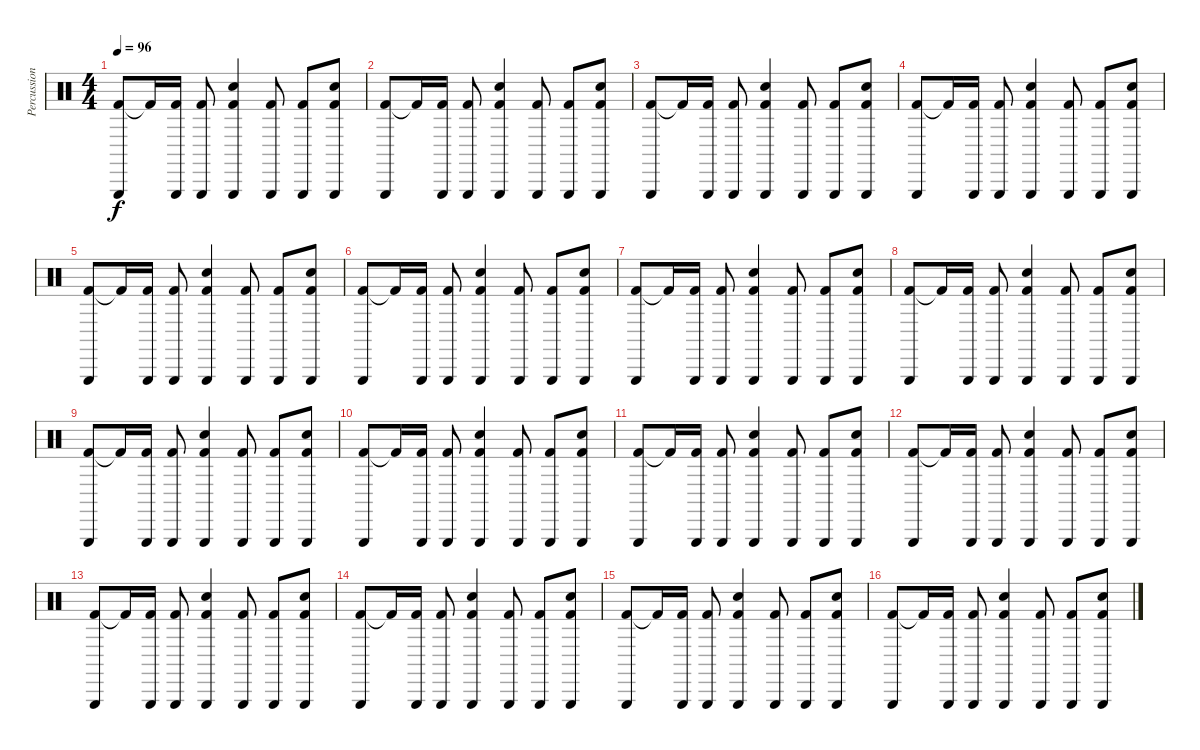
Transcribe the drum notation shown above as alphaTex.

\track ("Percussion 2" "Percussion") {instrument percussion}
\staff {score}
\articulation defaults
\ts (4 4)
\tempo 96
\clef neutral
\ks c
("Kick (hit) 2" "Triangle (hit)").8{dy f} "Kick (hit) 2"{t}.16 ("Kick (hit) 2" "Triangle (hit)").16 ("Kick (hit) 2" "Triangle (hit)").8 ("Kick (hit) 2" "Snare (hit) 2" "Triangle (hit)").4 ("Kick (hit) 2" "Triangle (hit)").8 ("Kick (hit) 2" "Triangle (hit)").8 ("Kick (hit) 2" "Snare (hit) 2" "Triangle (hit)").8 |
("Kick (hit) 2" "Triangle (hit)").8 "Kick (hit) 2"{t}.16 ("Kick (hit) 2" "Triangle (hit)").16 ("Kick (hit) 2" "Triangle (hit)").8 ("Kick (hit) 2" "Snare (hit) 2" "Triangle (hit)").4 ("Kick (hit) 2" "Triangle (hit)").8 ("Kick (hit) 2" "Triangle (hit)").8 ("Kick (hit) 2" "Snare (hit) 2" "Triangle (hit)").8 |
("Kick (hit) 2" "Triangle (hit)").8 "Kick (hit) 2"{t}.16 ("Kick (hit) 2" "Triangle (hit)").16 ("Kick (hit) 2" "Triangle (hit)").8 ("Kick (hit) 2" "Snare (hit) 2" "Triangle (hit)").4 ("Kick (hit) 2" "Triangle (hit)").8 ("Kick (hit) 2" "Triangle (hit)").8 ("Kick (hit) 2" "Snare (hit) 2" "Triangle (hit)").8 |
("Kick (hit) 2" "Triangle (hit)").8 "Kick (hit) 2"{t}.16 ("Kick (hit) 2" "Triangle (hit)").16 ("Kick (hit) 2" "Triangle (hit)").8 ("Kick (hit) 2" "Snare (hit) 2" "Triangle (hit)").4 ("Kick (hit) 2" "Triangle (hit)").8 ("Kick (hit) 2" "Triangle (hit)").8 ("Kick (hit) 2" "Snare (hit) 2" "Triangle (hit)").8 |
("Kick (hit) 2" "Triangle (hit)").8 "Kick (hit) 2"{t}.16 ("Kick (hit) 2" "Triangle (hit)").16 ("Kick (hit) 2" "Triangle (hit)").8 ("Kick (hit) 2" "Snare (hit) 2" "Triangle (hit)").4 ("Kick (hit) 2" "Triangle (hit)").8 ("Kick (hit) 2" "Triangle (hit)").8 ("Kick (hit) 2" "Snare (hit) 2" "Triangle (hit)").8 |
("Kick (hit) 2" "Triangle (hit)").8 "Kick (hit) 2"{t}.16 ("Kick (hit) 2" "Triangle (hit)").16 ("Kick (hit) 2" "Triangle (hit)").8 ("Kick (hit) 2" "Snare (hit) 2" "Triangle (hit)").4 ("Kick (hit) 2" "Triangle (hit)").8 ("Kick (hit) 2" "Triangle (hit)").8 ("Kick (hit) 2" "Snare (hit) 2" "Triangle (hit)").8 |
("Kick (hit) 2" "Triangle (hit)").8 "Kick (hit) 2"{t}.16 ("Kick (hit) 2" "Triangle (hit)").16 ("Kick (hit) 2" "Triangle (hit)").8 ("Kick (hit) 2" "Snare (hit) 2" "Triangle (hit)").4 ("Kick (hit) 2" "Triangle (hit)").8 ("Kick (hit) 2" "Triangle (hit)").8 ("Kick (hit) 2" "Snare (hit) 2" "Triangle (hit)").8 |
("Kick (hit) 2" "Triangle (hit)").8 "Kick (hit) 2"{t}.16 ("Kick (hit) 2" "Triangle (hit)").16 ("Kick (hit) 2" "Triangle (hit)").8 ("Kick (hit) 2" "Snare (hit) 2" "Triangle (hit)").4 ("Kick (hit) 2" "Triangle (hit)").8 ("Kick (hit) 2" "Triangle (hit)").8 ("Kick (hit) 2" "Snare (hit) 2" "Triangle (hit)").8 |
("Kick (hit) 2" "Triangle (hit)").8 "Kick (hit) 2"{t}.16 ("Kick (hit) 2" "Triangle (hit)").16 ("Kick (hit) 2" "Triangle (hit)").8 ("Kick (hit) 2" "Snare (hit) 2" "Triangle (hit)").4 ("Kick (hit) 2" "Triangle (hit)").8 ("Kick (hit) 2" "Triangle (hit)").8 ("Kick (hit) 2" "Snare (hit) 2" "Triangle (hit)").8 |
("Kick (hit) 2" "Triangle (hit)").8 "Kick (hit) 2"{t}.16 ("Kick (hit) 2" "Triangle (hit)").16 ("Kick (hit) 2" "Triangle (hit)").8 ("Kick (hit) 2" "Snare (hit) 2" "Triangle (hit)").4 ("Kick (hit) 2" "Triangle (hit)").8 ("Kick (hit) 2" "Triangle (hit)").8 ("Kick (hit) 2" "Snare (hit) 2" "Triangle (hit)").8 |
("Kick (hit) 2" "Triangle (hit)").8 "Kick (hit) 2"{t}.16 ("Kick (hit) 2" "Triangle (hit)").16 ("Kick (hit) 2" "Triangle (hit)").8 ("Kick (hit) 2" "Snare (hit) 2" "Triangle (hit)").4 ("Kick (hit) 2" "Triangle (hit)").8 ("Kick (hit) 2" "Triangle (hit)").8 ("Kick (hit) 2" "Snare (hit) 2" "Triangle (hit)").8 |
("Kick (hit) 2" "Triangle (hit)").8 "Kick (hit) 2"{t}.16 ("Kick (hit) 2" "Triangle (hit)").16 ("Kick (hit) 2" "Triangle (hit)").8 ("Kick (hit) 2" "Snare (hit) 2" "Triangle (hit)").4 ("Kick (hit) 2" "Triangle (hit)").8 ("Kick (hit) 2" "Triangle (hit)").8 ("Kick (hit) 2" "Snare (hit) 2" "Triangle (hit)").8 |
("Kick (hit) 2" "Triangle (hit)").8 "Kick (hit) 2"{t}.16 ("Kick (hit) 2" "Triangle (hit)").16 ("Kick (hit) 2" "Triangle (hit)").8 ("Kick (hit) 2" "Snare (hit) 2" "Triangle (hit)").4 ("Kick (hit) 2" "Triangle (hit)").8 ("Kick (hit) 2" "Triangle (hit)").8 ("Kick (hit) 2" "Snare (hit) 2" "Triangle (hit)").8 |
("Kick (hit) 2" "Triangle (hit)").8 "Kick (hit) 2"{t}.16 ("Kick (hit) 2" "Triangle (hit)").16 ("Kick (hit) 2" "Triangle (hit)").8 ("Kick (hit) 2" "Snare (hit) 2" "Triangle (hit)").4 ("Kick (hit) 2" "Triangle (hit)").8 ("Kick (hit) 2" "Triangle (hit)").8 ("Kick (hit) 2" "Snare (hit) 2" "Triangle (hit)").8 |
("Kick (hit) 2" "Triangle (hit)").8 "Kick (hit) 2"{t}.16 ("Kick (hit) 2" "Triangle (hit)").16 ("Kick (hit) 2" "Triangle (hit)").8 ("Kick (hit) 2" "Snare (hit) 2" "Triangle (hit)").4 ("Kick (hit) 2" "Triangle (hit)").8 ("Kick (hit) 2" "Triangle (hit)").8 ("Kick (hit) 2" "Snare (hit) 2" "Triangle (hit)").8 |
("Kick (hit) 2" "Triangle (hit)").8 "Kick (hit) 2"{t}.16 ("Kick (hit) 2" "Triangle (hit)").16 ("Kick (hit) 2" "Triangle (hit)").8 ("Kick (hit) 2" "Snare (hit) 2" "Triangle (hit)").4 ("Kick (hit) 2" "Triangle (hit)").8 ("Kick (hit) 2" "Triangle (hit)").8 ("Kick (hit) 2" "Snare (hit) 2" "Triangle (hit)").8
